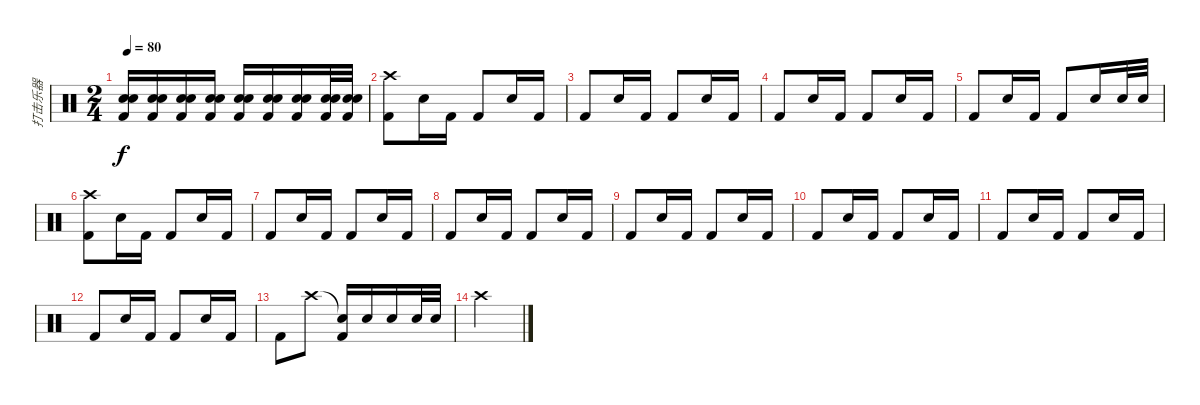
\track ("打击乐器" "打击乐器") {instrument percussion}
\staff {score}
\articulation defaults
\ts (2 4)
\tempo 80
\clef neutral
\ks c
("Electric Snare (hit)" "Electric Snare (hit)" "Kick (hit) 2").16{dy f} ("Electric Snare (hit)" "Electric Snare (hit)" "Kick (hit) 2").16 ("Electric Snare (hit)" "Electric Snare (hit)" "Kick (hit) 2").16 ("Electric Snare (hit)" "Electric Snare (hit)" "Kick (hit) 2").16 ("Electric Snare (hit)" "Electric Snare (hit)" "Kick (hit) 2").16 ("Electric Snare (hit)" "Electric Snare (hit)" "Kick (hit) 2").16 ("Electric Snare (hit)" "Electric Snare (hit)" "Kick (hit) 2").16 ("Electric Snare (hit)" "Electric Snare (hit)" "Kick (hit) 2").32 ("Electric Snare (hit)" "Electric Snare (hit)" "Kick (hit) 2").32 |
("Crash high (hit)" "Kick (hit) 2").8 "Electric Snare (hit)".16 "Kick (hit) 2".16 "Kick (hit) 2".8 "Electric Snare (hit)".16 "Kick (hit) 2".16 |
"Kick (hit) 2".8 "Electric Snare (hit)".16 "Kick (hit) 2".16 "Kick (hit) 2".8 "Electric Snare (hit)".16 "Kick (hit) 2".16 |
"Kick (hit) 2".8 "Electric Snare (hit)".16 "Kick (hit) 2".16 "Kick (hit) 2".8 "Electric Snare (hit)".16 "Kick (hit) 2".16 |
"Kick (hit) 2".8 "Electric Snare (hit)".16 "Kick (hit) 2".16 "Kick (hit) 2".8 "Electric Snare (hit)".16 "Snare (hit) 2".32 "Snare (hit) 2".32 |
("Crash high (hit)" "Kick (hit) 2").8 "Electric Snare (hit)".16 "Kick (hit) 2".16 "Kick (hit) 2".8 "Electric Snare (hit)".16 "Kick (hit) 2".16 |
"Kick (hit) 2".8 "Electric Snare (hit)".16 "Kick (hit) 2".16 "Kick (hit) 2".8 "Electric Snare (hit)".16 "Kick (hit) 2".16 |
"Kick (hit) 2".8 "Electric Snare (hit)".16 "Kick (hit) 2".16 "Kick (hit) 2".8 "Electric Snare (hit)".16 "Kick (hit) 2".16 |
"Kick (hit) 2".8 "Electric Snare (hit)".16 "Kick (hit) 2".16 "Kick (hit) 2".8 "Electric Snare (hit)".16 "Kick (hit) 2".16 |
"Kick (hit) 2".8 "Electric Snare (hit)".16 "Kick (hit) 2".16 "Kick (hit) 2".8 "Electric Snare (hit)".16 "Kick (hit) 2".16 |
"Kick (hit) 2".8 "Electric Snare (hit)".16 "Kick (hit) 2".16 "Kick (hit) 2".8 "Electric Snare (hit)".16 "Kick (hit) 2".16 |
"Kick (hit) 2".8 "Electric Snare (hit)".16 "Kick (hit) 2".16 "Kick (hit) 2".8 "Electric Snare (hit)".16 "Kick (hit) 2".16 |
"Kick (hit) 2".8 "Crash high (hit)".8 ("Snare (hit)"{t} "Kick (hit) 2").16 "Snare (hit) 2".16 "Snare (hit) 2".16 "Snare (hit) 2".32 "Snare (hit) 2".32 |
"Crash high (hit)".2
